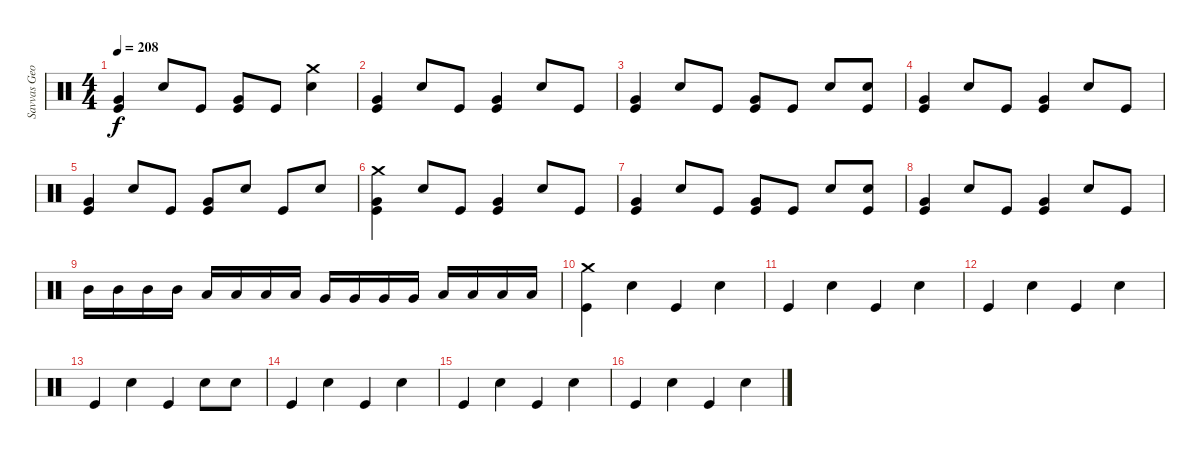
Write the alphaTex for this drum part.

\track ("Savvas Georgiadis" "Savvas Geo") {instrument percussion}
\staff {score}
\articulation defaults
\ts (4 4)
\tempo 208
\clef neutral
\ks c
("Very Low Tom (hit)" "Kick (hit)").4{dy f} "Snare (hit) 2".8 "Kick (hit)".8 ("Very Low Tom (hit)" "Kick (hit)").8 "Kick (hit)".8 ("Crash medium (hit)" "Snare (hit) 2").4 |
("Very Low Tom (hit)" "Kick (hit)").4 "Snare (hit) 2".8 "Kick (hit)".8 ("Very Low Tom (hit)" "Kick (hit)").4 "Snare (hit) 2".8 "Kick (hit)".8 |
("Very Low Tom (hit)" "Kick (hit)").4 "Snare (hit) 2".8 "Kick (hit)".8 ("Very Low Tom (hit)" "Kick (hit)").8 "Kick (hit)".8 "Snare (hit) 2".8 ("Snare (hit) 2" "Kick (hit)").8 |
("Very Low Tom (hit)" "Kick (hit)").4 "Snare (hit) 2".8 "Kick (hit)".8 ("Very Low Tom (hit)" "Kick (hit)").4 "Snare (hit) 2".8 "Kick (hit)".8 |
("Very Low Tom (hit)" "Kick (hit)").4 "Snare (hit) 2".8 "Kick (hit)".8 ("Very Low Tom (hit)" "Kick (hit)").8 "Snare (hit) 2".8 "Kick (hit)".8 "Snare (hit) 2".8 |
("Crash medium (hit)" "Very Low Tom (hit)" "Kick (hit)").4 "Snare (hit) 2".8 "Kick (hit)".8 ("Very Low Tom (hit)" "Kick (hit)").4 "Snare (hit) 2".8 "Kick (hit)".8 |
("Very Low Tom (hit)" "Kick (hit)").4 "Snare (hit) 2".8 "Kick (hit)".8 ("Very Low Tom (hit)" "Kick (hit)").8 "Kick (hit)".8 "Snare (hit) 2".8 ("Snare (hit) 2" "Kick (hit)").8 |
("Very Low Tom (hit)" "Kick (hit)").4 "Snare (hit) 2".8 "Kick (hit)".8 ("Very Low Tom (hit)" "Kick (hit)").4 "Snare (hit) 2".8 "Kick (hit)".8 |
"Mid Tom (hit)".16 "Mid Tom (hit)".16 "Mid Tom (hit)".16 "Mid Tom (hit)".16 "Low Tom (hit)".16 "Low Tom (hit)".16 "Low Tom (hit)".16 "Low Tom (hit)".16 "Very Low Tom (hit)".16 "Very Low Tom (hit)".16 "Very Low Tom (hit)".16 "Very Low Tom (hit)".16 "Low Floor Tom (hit)".16 "Low Floor Tom (hit)".16 "Low Floor Tom (hit)".16 "Low Floor Tom (hit)".16 |
("Crash medium (hit)" "Kick (hit)").4 "Snare (hit) 2".4 "Kick (hit)".4 "Snare (hit) 2".4 |
"Kick (hit)".4 "Snare (hit) 2".4 "Kick (hit)".4 "Snare (hit) 2".4 |
"Kick (hit)".4 "Snare (hit) 2".4 "Kick (hit)".4 "Snare (hit) 2".4 |
"Kick (hit)".4 "Snare (hit) 2".4 "Kick (hit)".4 "Snare (hit) 2".8 "Snare (hit) 2".8 |
"Kick (hit)".4 "Snare (hit) 2".4 "Kick (hit)".4 "Snare (hit) 2".4 |
"Kick (hit)".4 "Snare (hit) 2".4 "Kick (hit)".4 "Snare (hit) 2".4 |
"Kick (hit)".4 "Snare (hit) 2".4 "Kick (hit)".4 "Snare (hit) 2".4
